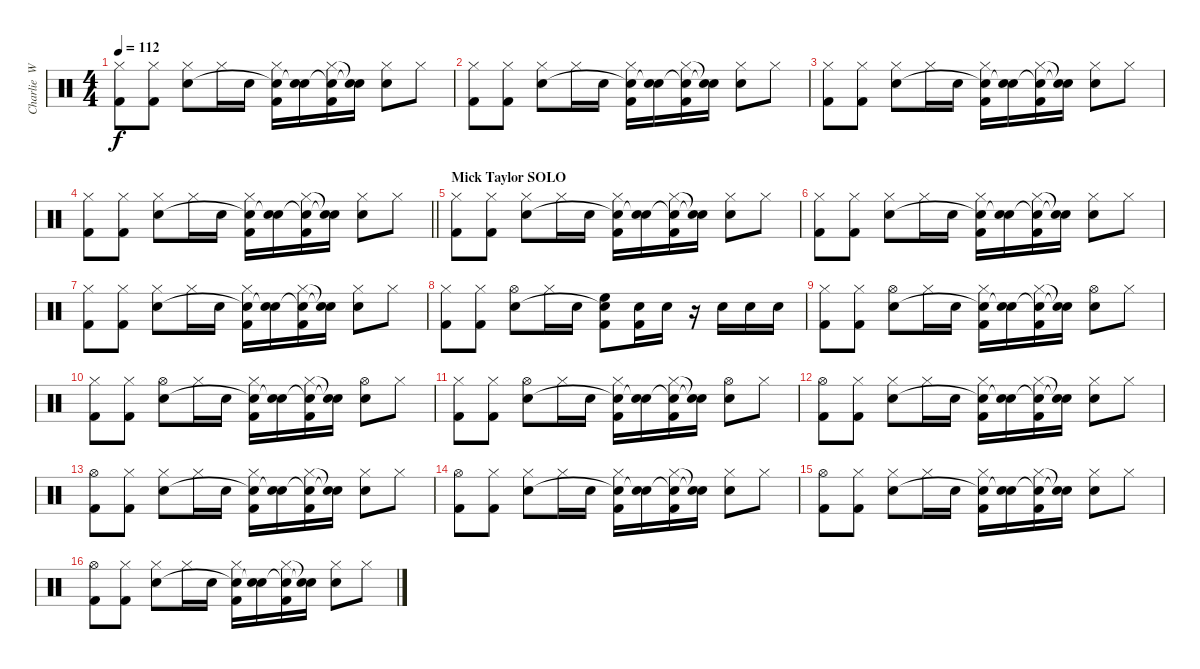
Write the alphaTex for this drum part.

\track ("Charlie  Watts" "Charlie  W") {instrument percussion}
\staff {score}
\articulation defaults
\ts (4 4)
\tempo 112
\clef neutral
\ks c
("Hi-Hat (closed)" "Kick (hit) 2").8{dy f} ("Hi-Hat (closed)" "Kick (hit) 2").8 ("Hi-Hat (closed)" "Snare (hit) 2").8 "Hi-Hat (closed)".16 "Snare (hit) 2".16 ("Hi-Hat (closed)" "Snare (hit)"{t} "Kick (hit) 2").16 ("Snare (hit) 2" "Snare (hit)"{t}).16 ("Hi-Hat (closed)" "Snare (hit)"{t} "Kick (hit) 2").16 ("Snare (hit)"{t} "Snare (hit)"{t}).16 ("Hi-Hat (closed)" "Snare (hit) 2").8 "Hi-Hat (closed)".8 |
("Hi-Hat (closed)" "Kick (hit) 2").8 ("Hi-Hat (closed)" "Kick (hit) 2").8 ("Hi-Hat (closed)" "Snare (hit) 2").8 "Hi-Hat (closed)".16 "Snare (hit) 2".16 ("Hi-Hat (closed)" "Snare (hit)"{t} "Kick (hit) 2").16 ("Snare (hit) 2" "Snare (hit)"{t}).16 ("Hi-Hat (closed)" "Snare (hit)"{t} "Kick (hit) 2").16 ("Snare (hit)"{t} "Snare (hit)"{t}).16 ("Hi-Hat (closed)" "Snare (hit) 2").8 "Hi-Hat (closed)".8 |
("Hi-Hat (closed)" "Kick (hit) 2").8 ("Hi-Hat (closed)" "Kick (hit) 2").8 ("Hi-Hat (closed)" "Snare (hit) 2").8 "Hi-Hat (closed)".16 "Snare (hit) 2".16 ("Hi-Hat (closed)" "Snare (hit)"{t} "Kick (hit) 2").16 ("Snare (hit) 2" "Snare (hit)"{t}).16 ("Hi-Hat (closed)" "Snare (hit)"{t} "Kick (hit) 2").16 ("Snare (hit)"{t} "Snare (hit)"{t}).16 ("Hi-Hat (closed)" "Snare (hit) 2").8 "Hi-Hat (closed)".8 |
\barLineRight lightlight
("Hi-Hat (closed)" "Kick (hit) 2").8 ("Hi-Hat (closed)" "Kick (hit) 2").8 ("Hi-Hat (closed)" "Snare (hit) 2").8 "Hi-Hat (closed)".16 "Snare (hit) 2".16 ("Hi-Hat (closed)" "Snare (hit)"{t} "Kick (hit) 2").16 ("Snare (hit) 2" "Snare (hit)"{t}).16 ("Hi-Hat (closed)" "Snare (hit)"{t} "Kick (hit) 2").16 ("Snare (hit)"{t} "Snare (hit)"{t}).16 ("Hi-Hat (closed)" "Snare (hit) 2").8 "Hi-Hat (closed)".8 |
\section ("" "Mick Taylor SOLO")
("Hi-Hat (closed)" "Kick (hit) 2").8 ("Hi-Hat (closed)" "Kick (hit) 2").8 ("Hi-Hat (closed)" "Snare (hit) 2").8 "Hi-Hat (closed)".16 "Snare (hit) 2".16 ("Hi-Hat (closed)" "Snare (hit)"{t} "Kick (hit) 2").16 ("Snare (hit) 2" "Snare (hit)"{t}).16 ("Hi-Hat (closed)" "Snare (hit)"{t} "Kick (hit) 2").16 ("Snare (hit)"{t} "Snare (hit)"{t}).16 ("Hi-Hat (closed)" "Snare (hit) 2").8 "Hi-Hat (closed)".8 |
("Hi-Hat (closed)" "Kick (hit) 2").8 ("Hi-Hat (closed)" "Kick (hit) 2").8 ("Hi-Hat (closed)" "Snare (hit) 2").8 "Hi-Hat (closed)".16 "Snare (hit) 2".16 ("Hi-Hat (closed)" "Snare (hit)"{t} "Kick (hit) 2").16 ("Snare (hit) 2" "Snare (hit)"{t}).16 ("Hi-Hat (closed)" "Snare (hit)"{t} "Kick (hit) 2").16 ("Snare (hit)"{t} "Snare (hit)"{t}).16 ("Hi-Hat (closed)" "Snare (hit) 2").8 "Hi-Hat (closed)".8 |
("Hi-Hat (closed)" "Kick (hit) 2").8 ("Hi-Hat (closed)" "Kick (hit) 2").8 ("Hi-Hat (closed)" "Snare (hit) 2").8 "Hi-Hat (closed)".16 "Snare (hit) 2".16 ("Hi-Hat (closed)" "Snare (hit)"{t} "Kick (hit) 2").16 ("Snare (hit) 2" "Snare (hit)"{t}).16 ("Hi-Hat (closed)" "Snare (hit)"{t} "Kick (hit) 2").16 ("Snare (hit)"{t} "Snare (hit)"{t}).16 ("Hi-Hat (closed)" "Snare (hit) 2").8 "Hi-Hat (closed)".8 |
("Hi-Hat (closed)" "Kick (hit) 2").8 ("Hi-Hat (closed)" "Kick (hit) 2").8 ("Hi-Hat (open)" "Snare (hit) 2").8 "Hi-Hat (closed)".16 "Snare (hit) 2".16 ("High Floor Tom (hit)" "Snare (hit)"{t} "Kick (hit) 2").8 ("Snare (hit) 2" "Kick (hit) 2").16 "Snare (hit) 2".16 r.16 "Snare (hit) 2".16 "Snare (hit) 2".16 "Snare (hit) 2".16 |
("Hi-Hat (closed)" "Kick (hit) 2").8 ("Hi-Hat (closed)" "Kick (hit) 2").8 ("Hi-Hat (open)" "Snare (hit) 2").8 "Hi-Hat (closed)".16 "Snare (hit) 2".16 ("Hi-Hat (closed)" "Snare (hit)"{t} "Kick (hit) 2").16 ("Snare (hit) 2" "Snare (hit)"{t}).16 ("Hi-Hat (closed)" "Snare (hit)"{t} "Kick (hit) 2").16 ("Snare (hit)"{t} "Snare (hit)"{t}).16 ("Hi-Hat (open)" "Snare (hit) 2").8 "Hi-Hat (closed)".8 |
("Hi-Hat (closed)" "Kick (hit) 2").8 ("Hi-Hat (closed)" "Kick (hit) 2").8 ("Hi-Hat (open)" "Snare (hit) 2").8 "Hi-Hat (closed)".16 "Snare (hit) 2".16 ("Hi-Hat (closed)" "Snare (hit)"{t} "Kick (hit) 2").16 ("Snare (hit) 2" "Snare (hit)"{t}).16 ("Hi-Hat (closed)" "Snare (hit)"{t} "Kick (hit) 2").16 ("Snare (hit)"{t} "Snare (hit)"{t}).16 ("Hi-Hat (open)" "Snare (hit) 2").8 "Hi-Hat (closed)".8 |
("Hi-Hat (closed)" "Kick (hit) 2").8 ("Hi-Hat (closed)" "Kick (hit) 2").8 ("Hi-Hat (open)" "Snare (hit) 2").8 "Hi-Hat (closed)".16 "Snare (hit) 2".16 ("Hi-Hat (closed)" "Snare (hit)"{t} "Kick (hit) 2").16 ("Snare (hit) 2" "Snare (hit)"{t}).16 ("Hi-Hat (closed)" "Snare (hit)"{t} "Kick (hit) 2").16 ("Snare (hit)"{t} "Snare (hit)"{t}).16 ("Hi-Hat (open)" "Snare (hit) 2").8 "Hi-Hat (closed)".8 |
("Hi-Hat (open)" "Kick (hit) 2").8 ("Hi-Hat (closed)" "Kick (hit) 2").8 ("Hi-Hat (closed)" "Snare (hit) 2").8 "Hi-Hat (closed)".16 "Snare (hit) 2".16 ("Hi-Hat (closed)" "Snare (hit)"{t} "Kick (hit) 2").16 ("Snare (hit) 2" "Snare (hit)"{t}).16 ("Hi-Hat (closed)" "Snare (hit)"{t} "Kick (hit) 2").16 ("Snare (hit)"{t} "Snare (hit)"{t}).16 ("Hi-Hat (closed)" "Snare (hit) 2").8 "Hi-Hat (closed)".8 |
("Hi-Hat (open)" "Kick (hit) 2").8 ("Hi-Hat (closed)" "Kick (hit) 2").8 ("Hi-Hat (closed)" "Snare (hit) 2").8 "Hi-Hat (closed)".16 "Snare (hit) 2".16 ("Hi-Hat (closed)" "Snare (hit)"{t} "Kick (hit) 2").16 ("Snare (hit) 2" "Snare (hit)"{t}).16 ("Hi-Hat (closed)" "Snare (hit)"{t} "Kick (hit) 2").16 ("Snare (hit)"{t} "Snare (hit)"{t}).16 ("Hi-Hat (closed)" "Snare (hit) 2").8 "Hi-Hat (closed)".8 |
("Hi-Hat (open)" "Kick (hit) 2").8 ("Hi-Hat (closed)" "Kick (hit) 2").8 ("Hi-Hat (closed)" "Snare (hit) 2").8 "Hi-Hat (closed)".16 "Snare (hit) 2".16 ("Hi-Hat (closed)" "Snare (hit)"{t} "Kick (hit) 2").16 ("Snare (hit) 2" "Snare (hit)"{t}).16 ("Hi-Hat (closed)" "Snare (hit)"{t} "Kick (hit) 2").16 ("Snare (hit)"{t} "Snare (hit)"{t}).16 ("Hi-Hat (closed)" "Snare (hit) 2").8 "Hi-Hat (closed)".8 |
("Hi-Hat (open)" "Kick (hit) 2").8 ("Hi-Hat (closed)" "Kick (hit) 2").8 ("Hi-Hat (closed)" "Snare (hit) 2").8 "Hi-Hat (closed)".16 "Snare (hit) 2".16 ("Hi-Hat (closed)" "Snare (hit)"{t} "Kick (hit) 2").16 ("Snare (hit) 2" "Snare (hit)"{t}).16 ("Hi-Hat (closed)" "Snare (hit)"{t} "Kick (hit) 2").16 ("Snare (hit)"{t} "Snare (hit)"{t}).16 ("Hi-Hat (closed)" "Snare (hit) 2").8 "Hi-Hat (closed)".8 |
("Hi-Hat (open)" "Kick (hit) 2").8 ("Hi-Hat (closed)" "Kick (hit) 2").8 ("Hi-Hat (closed)" "Snare (hit) 2").8 "Hi-Hat (closed)".16 "Snare (hit) 2".16 ("Hi-Hat (closed)" "Snare (hit)"{t} "Kick (hit) 2").16 ("Snare (hit) 2" "Snare (hit)"{t}).16 ("Hi-Hat (closed)" "Snare (hit)"{t} "Kick (hit) 2").16 ("Snare (hit)"{t} "Snare (hit)"{t}).16 ("Hi-Hat (closed)" "Snare (hit) 2").8 "Hi-Hat (closed)".8
